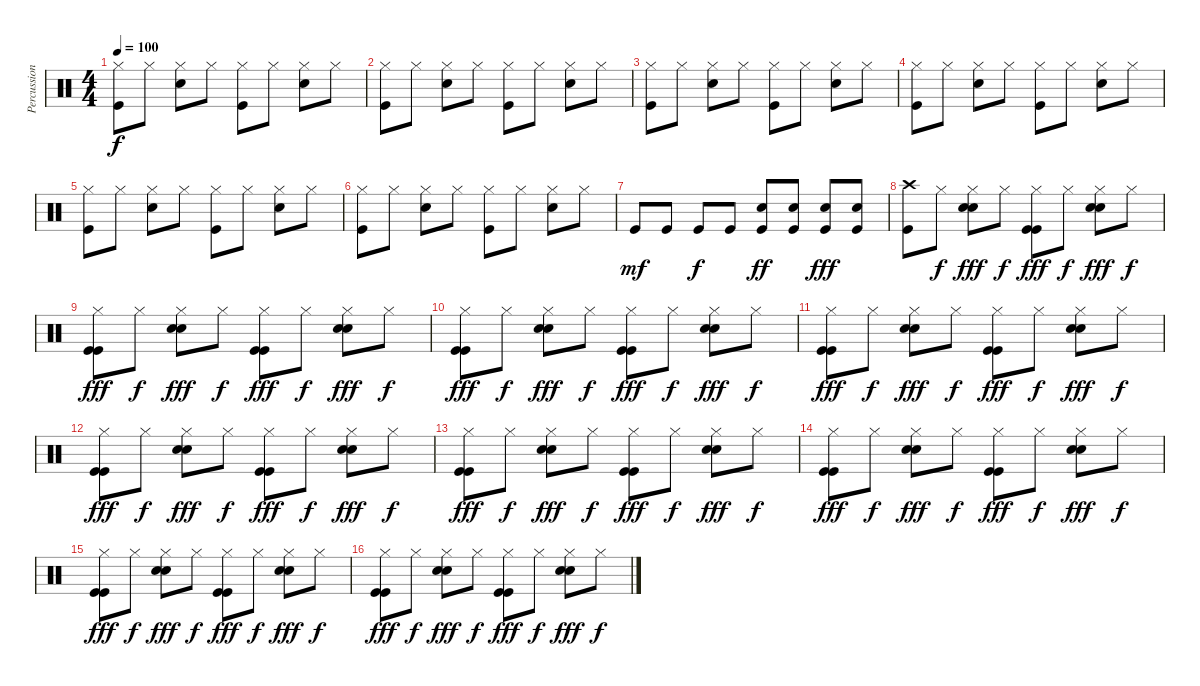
\track ("Percussion" "Percussion") {instrument percussion}
\staff {score}
\articulation defaults
\ts (4 4)
\tempo 100
\clef neutral
\ks c
("Hi-Hat (closed)" "Kick (hit)").8{dy f} "Hi-Hat (closed)".8 ("Hi-Hat (closed)" "Snare (hit) 2").8 "Hi-Hat (closed)".8 ("Hi-Hat (closed)" "Kick (hit)").8 "Hi-Hat (closed)".8 ("Hi-Hat (closed)" "Snare (hit) 2").8 "Hi-Hat (closed)".8 |
("Hi-Hat (closed)" "Kick (hit)").8 "Hi-Hat (closed)".8 ("Hi-Hat (closed)" "Snare (hit) 2").8 "Hi-Hat (closed)".8 ("Hi-Hat (closed)" "Kick (hit)").8 "Hi-Hat (closed)".8 ("Hi-Hat (closed)" "Snare (hit) 2").8 "Hi-Hat (closed)".8 |
("Hi-Hat (closed)" "Kick (hit)").8 "Hi-Hat (closed)".8 ("Hi-Hat (closed)" "Snare (hit) 2").8 "Hi-Hat (closed)".8 ("Hi-Hat (closed)" "Kick (hit)").8 "Hi-Hat (closed)".8 ("Hi-Hat (closed)" "Snare (hit) 2").8 "Hi-Hat (closed)".8 |
("Hi-Hat (closed)" "Kick (hit)").8 "Hi-Hat (closed)".8 ("Hi-Hat (closed)" "Snare (hit) 2").8 "Hi-Hat (closed)".8 ("Hi-Hat (closed)" "Kick (hit)").8 "Hi-Hat (closed)".8 ("Hi-Hat (closed)" "Snare (hit) 2").8 "Hi-Hat (closed)".8 |
("Hi-Hat (closed)" "Kick (hit)").8 "Hi-Hat (closed)".8 ("Hi-Hat (closed)" "Snare (hit) 2").8 "Hi-Hat (closed)".8 ("Hi-Hat (closed)" "Kick (hit)").8 "Hi-Hat (closed)".8 ("Hi-Hat (closed)" "Snare (hit) 2").8 "Hi-Hat (closed)".8 |
("Hi-Hat (closed)" "Kick (hit)").8 "Hi-Hat (closed)".8 ("Hi-Hat (closed)" "Snare (hit) 2").8 "Hi-Hat (closed)".8 ("Hi-Hat (closed)" "Kick (hit)").8 "Hi-Hat (closed)".8 ("Hi-Hat (closed)" "Snare (hit) 2").8 "Hi-Hat (closed)".8 |
"Kick (hit)".8{dy mf} "Kick (hit)".8 "Kick (hit)".8{dy f} "Kick (hit)".8 ("Kick (hit)" "Snare (hit) 2").8{dy ff} ("Kick (hit)" "Snare (hit) 2").8 ("Kick (hit)" "Snare (hit) 2").8{dy fff} ("Kick (hit)" "Snare (hit) 2").8 |
("Kick (hit)" "Crash high (hit)").8 "Hi-Hat (closed)".8{dy f} ("Hi-Hat (closed)" "Snare (hit) 2" "Snare (hit) 2").8{dy fff} "Hi-Hat (closed)".8{dy f} ("Hi-Hat (closed)" "Kick (hit)" "Kick (hit)").8{dy fff} "Hi-Hat (closed)".8{dy f} ("Hi-Hat (closed)" "Snare (hit) 2" "Snare (hit) 2").8{dy fff} "Hi-Hat (closed)".8{dy f} |
("Hi-Hat (closed)" "Kick (hit)" "Kick (hit)").8{dy fff} "Hi-Hat (closed)".8{dy f} ("Hi-Hat (closed)" "Snare (hit) 2" "Snare (hit) 2").8{dy fff} "Hi-Hat (closed)".8{dy f} ("Hi-Hat (closed)" "Kick (hit)" "Kick (hit)").8{dy fff} "Hi-Hat (closed)".8{dy f} ("Hi-Hat (closed)" "Snare (hit) 2" "Snare (hit) 2").8{dy fff} "Hi-Hat (closed)".8{dy f} |
("Hi-Hat (closed)" "Kick (hit)" "Kick (hit)").8{dy fff} "Hi-Hat (closed)".8{dy f} ("Hi-Hat (closed)" "Snare (hit) 2" "Snare (hit) 2").8{dy fff} "Hi-Hat (closed)".8{dy f} ("Hi-Hat (closed)" "Kick (hit)" "Kick (hit)").8{dy fff} "Hi-Hat (closed)".8{dy f} ("Hi-Hat (closed)" "Snare (hit) 2" "Snare (hit) 2").8{dy fff} "Hi-Hat (closed)".8{dy f} |
("Hi-Hat (closed)" "Kick (hit)" "Kick (hit)").8{dy fff} "Hi-Hat (closed)".8{dy f} ("Hi-Hat (closed)" "Snare (hit) 2" "Snare (hit) 2").8{dy fff} "Hi-Hat (closed)".8{dy f} ("Hi-Hat (closed)" "Kick (hit)" "Kick (hit)").8{dy fff} "Hi-Hat (closed)".8{dy f} ("Hi-Hat (closed)" "Snare (hit) 2" "Snare (hit) 2").8{dy fff} "Hi-Hat (closed)".8{dy f} |
("Hi-Hat (closed)" "Kick (hit)" "Kick (hit)").8{dy fff} "Hi-Hat (closed)".8{dy f} ("Hi-Hat (closed)" "Snare (hit) 2" "Snare (hit) 2").8{dy fff} "Hi-Hat (closed)".8{dy f} ("Hi-Hat (closed)" "Kick (hit)" "Kick (hit)").8{dy fff} "Hi-Hat (closed)".8{dy f} ("Hi-Hat (closed)" "Snare (hit) 2" "Snare (hit) 2").8{dy fff} "Hi-Hat (closed)".8{dy f} |
("Hi-Hat (closed)" "Kick (hit)" "Kick (hit)").8{dy fff} "Hi-Hat (closed)".8{dy f} ("Hi-Hat (closed)" "Snare (hit) 2" "Snare (hit) 2").8{dy fff} "Hi-Hat (closed)".8{dy f} ("Hi-Hat (closed)" "Kick (hit)" "Kick (hit)").8{dy fff} "Hi-Hat (closed)".8{dy f} ("Hi-Hat (closed)" "Snare (hit) 2" "Snare (hit) 2").8{dy fff} "Hi-Hat (closed)".8{dy f} |
("Hi-Hat (closed)" "Kick (hit)" "Kick (hit)").8{dy fff} "Hi-Hat (closed)".8{dy f} ("Hi-Hat (closed)" "Snare (hit) 2" "Snare (hit) 2").8{dy fff} "Hi-Hat (closed)".8{dy f} ("Hi-Hat (closed)" "Kick (hit)" "Kick (hit)").8{dy fff} "Hi-Hat (closed)".8{dy f} ("Hi-Hat (closed)" "Snare (hit) 2" "Snare (hit) 2").8{dy fff} "Hi-Hat (closed)".8{dy f} |
("Hi-Hat (closed)" "Kick (hit)" "Kick (hit)").8{dy fff} "Hi-Hat (closed)".8{dy f} ("Hi-Hat (closed)" "Snare (hit) 2" "Snare (hit) 2").8{dy fff} "Hi-Hat (closed)".8{dy f} ("Hi-Hat (closed)" "Kick (hit)" "Kick (hit)").8{dy fff} "Hi-Hat (closed)".8{dy f} ("Hi-Hat (closed)" "Snare (hit) 2" "Snare (hit) 2").8{dy fff} "Hi-Hat (closed)".8{dy f} |
("Hi-Hat (closed)" "Kick (hit)" "Kick (hit)").8{dy fff} "Hi-Hat (closed)".8{dy f} ("Hi-Hat (closed)" "Snare (hit) 2" "Snare (hit) 2").8{dy fff} "Hi-Hat (closed)".8{dy f} ("Hi-Hat (closed)" "Kick (hit)" "Kick (hit)").8{dy fff} "Hi-Hat (closed)".8{dy f} ("Hi-Hat (closed)" "Snare (hit) 2" "Snare (hit) 2").8{dy fff} "Hi-Hat (closed)".8{dy f}
